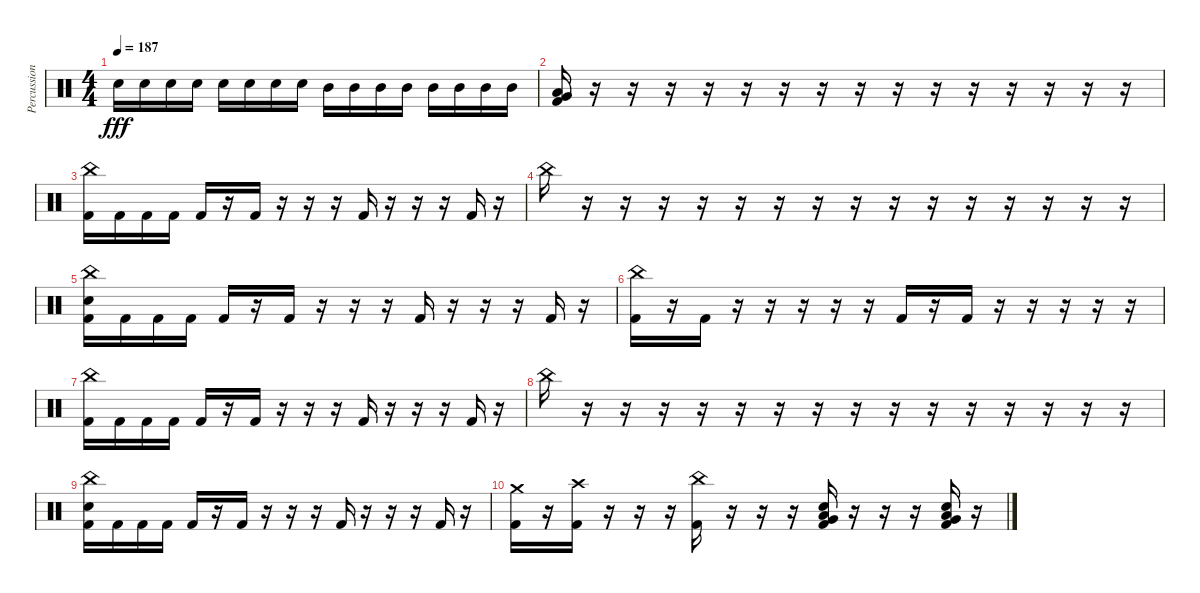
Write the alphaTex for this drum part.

\track ("Percussion" "Percussion") {instrument percussion}
\staff {score}
\articulation defaults
\ts (4 4)
\tempo 187
\clef neutral
\ks c "Snare (hit) 2".16{dy fff} "Snare (hit) 2".16 "Snare (hit) 2".16 "Snare (hit) 2".16 "Snare (hit) 2".16 "Snare (hit) 2".16 "Snare (hit) 2".16 "Snare (hit) 2".16 "Mid Tom (hit)".16 "Mid Tom (hit)".16 "Mid Tom (hit)".16 "Mid Tom (hit)".16 "Mid Tom (hit)".16 "Mid Tom (hit)".16 "Mid Tom (hit)".16 "Mid Tom (hit)".16
|
("Very Low Tom (hit)" "Low Floor Tom (hit)" "Kick (hit) 2").16 r.16 r.16 r.16 r.16 r.16 r.16 r.16 r.16 r.16 r.16 r.16 r.16 r.16 r.16 r.16 |
("China (hit)" "Kick (hit) 2").16 "Kick (hit) 2".16 "Kick (hit) 2".16 "Kick (hit) 2".16 "Kick (hit) 2".16 r.16 "Kick (hit) 2".16 r.16 r.16 r.16 "Kick (hit) 2".16 r.16 r.16 r.16 "Kick (hit) 2".16 r.16 |
"China (hit)".16 r.16 r.16 r.16 r.16 r.16 r.16 r.16 r.16 r.16 r.16 r.16 r.16 r.16 r.16 r.16 |
("China (hit)" "Snare (hit) 2" "Kick (hit) 2").16 "Kick (hit) 2".16 "Kick (hit) 2".16 "Kick (hit) 2".16 "Kick (hit) 2".16 r.16 "Kick (hit) 2".16 r.16 r.16 r.16 "Kick (hit) 2".16 r.16 r.16 r.16 "Kick (hit) 2".16 r.16 |
("China (hit)" "Kick (hit) 2").16 r.16 "Kick (hit) 2".16 r.16 r.16 r.16 r.16 r.16 "Kick (hit) 2".16 r.16 "Kick (hit) 2".16 r.16 r.16 r.16 r.16 r.16 |
("China (hit)" "Kick (hit) 2").16 "Kick (hit) 2".16 "Kick (hit) 2".16 "Kick (hit) 2".16 "Kick (hit) 2".16 r.16 "Kick (hit) 2".16 r.16 r.16 r.16 "Kick (hit) 2".16 r.16 r.16 r.16 "Kick (hit) 2".16 r.16 |
"China (hit)".16 r.16 r.16 r.16 r.16 r.16 r.16 r.16 r.16 r.16 r.16 r.16 r.16 r.16 r.16 r.16 |
("China (hit)" "Snare (hit) 2" "Kick (hit) 2").16 "Kick (hit) 2".16 "Kick (hit) 2".16 "Kick (hit) 2".16 "Kick (hit) 2".16 r.16 "Kick (hit) 2".16 r.16 r.16 r.16 "Kick (hit) 2".16 r.16 r.16 r.16 "Kick (hit) 2".16 r.16 |
("Crash medium (hit)" "Kick (hit) 2").16 r.16 ("Crash high (hit)" "Kick (hit) 2").16 r.16 r.16 r.16 ("China (hit)" "Kick (hit) 2").16 r.16 r.16 r.16 ("Snare (hit) 2" "Very Low Tom (hit)" "Low Floor Tom (hit)" "Kick (hit) 2").16 r.16 r.16 r.16 ("Snare (hit) 2" "Very Low Tom (hit)" "Low Floor Tom (hit)" "Kick (hit) 2").16 r.16
